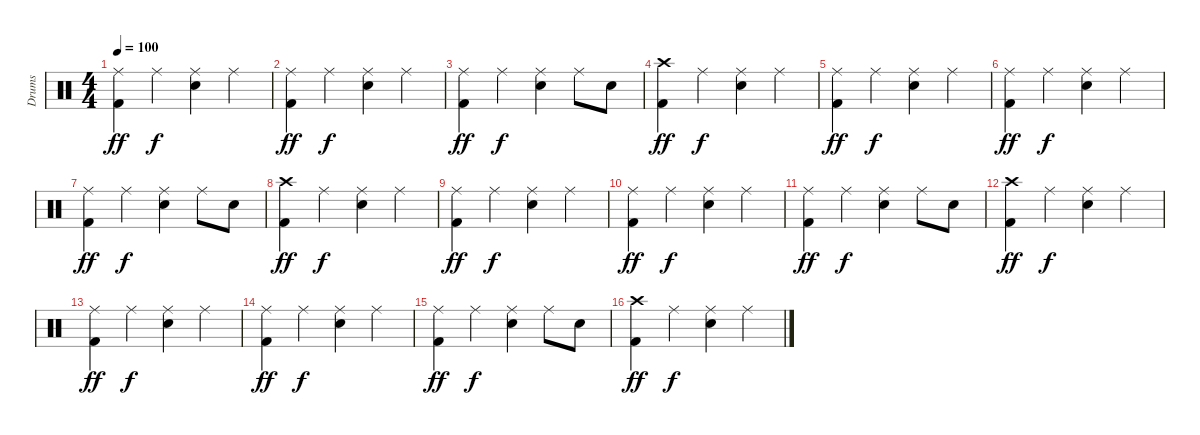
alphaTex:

\track ("Drums" "Drums") {instrument percussion}
\staff {score}
\articulation defaults
\ts (4 4)
\tempo 100
\clef neutral
\ks c
("Ride (middle)" "Kick (hit) 2").4{dy ff} "Ride (middle)".4{dy f} ("Ride (middle)" "Electric Snare (hit)").4 "Ride (middle)".4 |
("Ride (middle)" "Kick (hit) 2").4{dy ff} "Ride (middle)".4{dy f} ("Ride (middle)" "Electric Snare (hit)").4 "Ride (middle)".4 |
("Ride (middle)" "Kick (hit) 2").4{dy ff} "Ride (middle)".4{dy f} ("Ride (middle)" "Electric Snare (hit)").4 "Ride (middle)".8 "Electric Snare (hit)".8 |
("Crash high (hit)" "Kick (hit) 2").4{dy ff} "Ride (middle)".4{dy f} ("Ride (middle)" "Electric Snare (hit)").4 "Ride (middle)".4 |
("Ride (middle)" "Kick (hit) 2").4{dy ff} "Ride (middle)".4{dy f} ("Ride (middle)" "Electric Snare (hit)").4 "Ride (middle)".4 |
("Ride (middle)" "Kick (hit) 2").4{dy ff} "Ride (middle)".4{dy f} ("Ride (middle)" "Electric Snare (hit)").4 "Ride (middle)".4 |
("Ride (middle)" "Kick (hit) 2").4{dy ff} "Ride (middle)".4{dy f} ("Ride (middle)" "Electric Snare (hit)").4 "Ride (middle)".8 "Electric Snare (hit)".8 |
("Crash high (hit)" "Kick (hit) 2").4{dy ff} "Ride (middle)".4{dy f} ("Ride (middle)" "Electric Snare (hit)").4 "Ride (middle)".4 |
("Ride (middle)" "Kick (hit) 2").4{dy ff} "Ride (middle)".4{dy f} ("Ride (middle)" "Electric Snare (hit)").4 "Ride (middle)".4 |
("Ride (middle)" "Kick (hit) 2").4{dy ff} "Ride (middle)".4{dy f} ("Ride (middle)" "Electric Snare (hit)").4 "Ride (middle)".4 |
("Ride (middle)" "Kick (hit) 2").4{dy ff} "Ride (middle)".4{dy f} ("Ride (middle)" "Electric Snare (hit)").4 "Ride (middle)".8 "Electric Snare (hit)".8 |
("Crash high (hit)" "Kick (hit) 2").4{dy ff} "Ride (middle)".4{dy f} ("Ride (middle)" "Electric Snare (hit)").4 "Ride (middle)".4 |
("Ride (middle)" "Kick (hit) 2").4{dy ff} "Ride (middle)".4{dy f} ("Ride (middle)" "Electric Snare (hit)").4 "Ride (middle)".4 |
("Ride (middle)" "Kick (hit) 2").4{dy ff} "Ride (middle)".4{dy f} ("Ride (middle)" "Electric Snare (hit)").4 "Ride (middle)".4 |
("Ride (middle)" "Kick (hit) 2").4{dy ff} "Ride (middle)".4{dy f} ("Ride (middle)" "Electric Snare (hit)").4 "Ride (middle)".8 "Electric Snare (hit)".8 |
("Crash high (hit)" "Kick (hit) 2").4{dy ff} "Ride (middle)".4{dy f} ("Ride (middle)" "Electric Snare (hit)").4 "Ride (middle)".4
